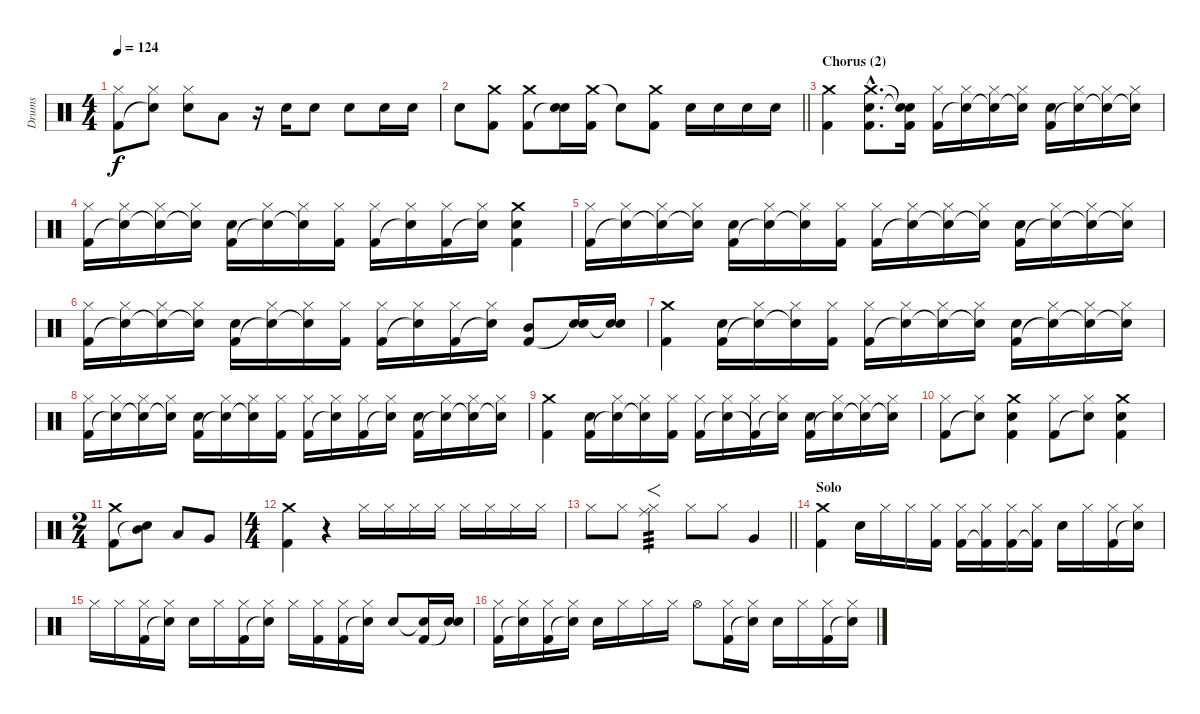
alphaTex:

\track ("Drums" "Drums") {instrument percussion}
\staff {score}
\articulation defaults
\ts (4 4)
\tempo 124
\clef neutral
\ks aminor
("Hi-Hat (closed)" "Kick (hit) 2").8{dy f} ("Hi-Hat (closed)" "Snare (hit)"{t}).8 ("Hi-Hat (closed)" "Electric Snare (hit)").8 "Low Tom (hit)".8 r.16 "Electric Snare (hit)".16 "Electric Snare (hit)".8 "Electric Snare (hit)".8 "Electric Snare (hit)".16 "Electric Snare (hit)".16 |
\barLineRight lightlight "Electric Snare (hit)".8
("Crash medium (hit)" "Kick (hit) 2").8 ("Crash medium (hit)" "Kick (hit) 2").8 ("Electric Snare (hit)" "Snare (hit)"{t}).16 ("Crash medium (hit)" "Kick (hit) 2").16 "Snare (hit)"{t}.8 ("Crash medium (hit)" "Kick (hit) 2").8 "Electric Snare (hit)".16 "Electric Snare (hit)".16 "Electric Snare (hit)".16 "Electric Snare (hit)".16 |
\section ("" "Chorus (2)")
("Crash medium (hit)" "Kick (hit) 2").4 ("Crash medium (hit)"{hac} "Electric Snare (hit)"{hac} "Kick (hit) 2"{hac}).8{d} ("Snare (hit)"{t} "Snare (hit)"{t} "Kick (hit) 2").16 ("Hi-Hat (closed)" "Kick (hit) 2").16 ("Hi-Hat (closed)" "Snare (hit)"{t}).16 ("Hi-Hat (closed)" "Snare (hit)"{t}).16 ("Hi-Hat (closed)" "Snare (hit)"{t}).16 ("Electric Snare (hit)" "Kick (hit) 2").16 ("Hi-Hat (closed)" "Snare (hit)"{t}).16 ("Hi-Hat (closed)" "Snare (hit)"{t}).16 ("Hi-Hat (closed)" "Snare (hit)"{t}).16 |
("Hi-Hat (closed)" "Kick (hit) 2").16 ("Hi-Hat (closed)" "Snare (hit)"{t}).16 ("Hi-Hat (closed)" "Snare (hit)"{t}).16 ("Hi-Hat (closed)" "Snare (hit)"{t}).16 ("Electric Snare (hit)" "Kick (hit) 2").16 ("Hi-Hat (closed)" "Snare (hit)"{t}).16 ("Hi-Hat (closed)" "Snare (hit)"{t}).16 ("Hi-Hat (closed)" "Kick (hit) 2").16 ("Hi-Hat (closed)" "Kick (hit) 2").16 ("Hi-Hat (closed)" "Snare (hit)"{t}).16 ("Hi-Hat (closed)" "Kick (hit) 2").16 ("Hi-Hat (closed)" "Snare (hit)"{t}).16 ("Crash medium (hit)" "Electric Snare (hit)" "Kick (hit) 2").4 |
("Hi-Hat (closed)" "Kick (hit) 2").16 ("Hi-Hat (closed)" "Snare (hit)"{t}).16 ("Hi-Hat (closed)" "Snare (hit)"{t}).16 ("Hi-Hat (closed)" "Snare (hit)"{t}).16 ("Electric Snare (hit)" "Kick (hit) 2").16 ("Hi-Hat (closed)" "Snare (hit)"{t}).16 ("Hi-Hat (closed)" "Snare (hit)"{t}).16 ("Hi-Hat (closed)" "Kick (hit) 2").16 ("Hi-Hat (closed)" "Kick (hit) 2").16 ("Hi-Hat (closed)" "Snare (hit)"{t}).16 ("Hi-Hat (closed)" "Snare (hit)"{t}).16 ("Hi-Hat (closed)" "Snare (hit)"{t}).16 ("Electric Snare (hit)" "Kick (hit) 2").16 ("Hi-Hat (closed)" "Snare (hit)"{t}).16 ("Hi-Hat (closed)" "Snare (hit)"{t}).16 ("Hi-Hat (closed)" "Snare (hit)"{t}).16 |
("Hi-Hat (closed)" "Kick (hit) 2").16 ("Hi-Hat (closed)" "Snare (hit)"{t}).16 ("Hi-Hat (closed)" "Snare (hit)"{t}).16 ("Hi-Hat (closed)" "Snare (hit)"{t}).16 ("Electric Snare (hit)" "Kick (hit) 2").16 ("Hi-Hat (closed)" "Snare (hit)"{t}).16 ("Hi-Hat (closed)" "Snare (hit)"{t}).16 ("Hi-Hat (closed)" "Kick (hit) 2").16 ("Hi-Hat (closed)" "Kick (hit) 2").16 ("Hi-Hat (closed)" "Snare (hit)"{t}).16 ("Hi-Hat (closed)" "Kick (hit) 2").16 ("Hi-Hat (closed)" "Snare (hit)"{t}).16 ("Mid Tom (hit)" "Kick (hit) 2").8 ("Electric Snare (hit)" "Snare (hit)"{t}).16 ("Electric Snare (hit)" "Snare (hit)"{t}).16 |
("Crash medium (hit)" "Kick (hit) 2").4 ("Electric Snare (hit)" "Kick (hit) 2").16 ("Hi-Hat (closed)" "Snare (hit)"{t}).16 ("Hi-Hat (closed)" "Snare (hit)"{t}).16 ("Hi-Hat (closed)" "Kick (hit) 2").16 ("Hi-Hat (closed)" "Kick (hit) 2").16 ("Hi-Hat (closed)" "Snare (hit)"{t}).16 ("Hi-Hat (closed)" "Snare (hit)"{t}).16 ("Hi-Hat (closed)" "Snare (hit)"{t}).16 ("Electric Snare (hit)" "Kick (hit) 2").16 ("Hi-Hat (closed)" "Snare (hit)"{t}).16 ("Hi-Hat (closed)" "Snare (hit)"{t}).16 ("Hi-Hat (closed)" "Snare (hit)"{t}).16 |
("Hi-Hat (closed)" "Kick (hit) 2").16 ("Hi-Hat (closed)" "Snare (hit)"{t}).16 ("Hi-Hat (closed)" "Snare (hit)"{t}).16 ("Hi-Hat (closed)" "Snare (hit)"{t}).16 ("Electric Snare (hit)" "Kick (hit) 2").16 ("Hi-Hat (closed)" "Snare (hit)"{t}).16 ("Hi-Hat (closed)" "Snare (hit)"{t}).16 ("Hi-Hat (closed)" "Kick (hit) 2").16 ("Hi-Hat (closed)" "Kick (hit) 2").16 ("Hi-Hat (closed)" "Snare (hit)"{t}).16 ("Hi-Hat (closed)" "Kick (hit) 2").16 ("Hi-Hat (closed)" "Snare (hit)"{t}).16 ("Electric Snare (hit)" "Kick (hit) 2").16 ("Hi-Hat (closed)" "Snare (hit)"{t}).16 ("Hi-Hat (closed)" "Snare (hit)"{t}).16 ("Hi-Hat (closed)" "Snare (hit)"{t}).16 |
("Crash medium (hit)" "Kick (hit) 2").4 ("Electric Snare (hit)" "Kick (hit) 2").16 ("Hi-Hat (closed)" "Snare (hit)"{t}).16 ("Hi-Hat (closed)" "Snare (hit)"{t}).16 ("Hi-Hat (closed)" "Kick (hit) 2").16 ("Hi-Hat (closed)" "Kick (hit) 2").16 ("Hi-Hat (closed)" "Snare (hit)"{t}).16 ("Hi-Hat (closed)" "Kick (hit) 2"{t}).16 ("Hi-Hat (closed)" "Snare (hit)"{t}).16 ("Electric Snare (hit)" "Kick (hit) 2").16 ("Hi-Hat (closed)" "Snare (hit)"{t}).16 ("Hi-Hat (closed)" "Snare (hit)"{t}).16 ("Hi-Hat (closed)" "Snare (hit)"{t}).16 |
("Hi-Hat (closed)" "Kick (hit) 2").8 ("Hi-Hat (closed)" "Snare (hit)"{t}).8 ("Crash medium (hit)" "Electric Snare (hit)" "Kick (hit) 2").4 ("Hi-Hat (closed)" "Kick (hit) 2").8 ("Hi-Hat (closed)" "Snare (hit)"{t}).8 ("Crash medium (hit)" "Electric Snare (hit)" "Kick (hit) 2").4 |
\ts (2 4)
("Crash medium (hit)" "Kick (hit) 2").8 ("Mid Tom (hit)" "Snare (hit)"{t}).8 "Low Tom (hit)".8 "Very Low Tom (hit)".8 |
\ts (4 4)
("Crash medium (hit)" "Kick (hit) 2").4 r.4 "Hi-Hat (closed)".16 "Hi-Hat (closed)".16 "Hi-Hat (closed)".16 "Hi-Hat (closed)".16 "Hi-Hat (closed)".16 "Hi-Hat (closed)".16 "Hi-Hat (closed)".16 "Hi-Hat (closed)".16 |
\barLineRight lightlight "Hi-Hat (closed)".8 "Hi-Hat (closed)".8
("Hi-Hat (closed)" "Ride (middle)").4{f tp 3} "Hi-Hat (closed)".8 "Hi-Hat (closed)".8 "Very Low Tom (hit)".4 |
\section ("" "Solo")
("Crash medium (hit)" "Kick (hit) 2").4 "Electric Snare (hit)".16 "Hi-Hat (closed)".16 "Hi-Hat (closed)".16 ("Hi-Hat (closed)" "Kick (hit) 2").16 ("Hi-Hat (closed)" "Kick (hit) 2").16 ("Hi-Hat (closed)" "Kick (hit) 2"{t}).16 ("Hi-Hat (closed)" "Kick (hit) 2").16 ("Hi-Hat (closed)" "Kick (hit) 2"{t}).16 "Electric Snare (hit)".16 "Hi-Hat (closed)".16 ("Hi-Hat (closed)" "Kick (hit) 2").16 ("Hi-Hat (closed)" "Snare (hit)"{t}).16 |
"Hi-Hat (closed)".16 "Hi-Hat (closed)".16 ("Hi-Hat (closed)" "Kick (hit) 2").16 ("Hi-Hat (closed)" "Snare (hit)"{t}).16 "Electric Snare (hit)".16 "Hi-Hat (closed)".16 ("Hi-Hat (closed)" "Kick (hit) 2").16 ("Hi-Hat (closed)" "Snare (hit)"{t}).16 "Hi-Hat (closed)".16 ("Hi-Hat (closed)" "Kick (hit) 2").16 ("Hi-Hat (closed)" "Kick (hit) 2").16 ("Hi-Hat (closed)" "Snare (hit)"{t}).16 "Electric Snare (hit)".8 ("Snare (hit)"{t} "Kick (hit) 2").16 ("Electric Snare (hit)" "Snare (hit)"{t}).16 |
("Hi-Hat (closed)" "Kick (hit) 2").16 ("Hi-Hat (closed)" "Snare (hit)"{t}).16 ("Hi-Hat (closed)" "Kick (hit) 2").16 ("Hi-Hat (closed)" "Snare (hit)"{t}).16 "Electric Snare (hit)".16 "Hi-Hat (closed)".16 "Hi-Hat (closed)".16 "Hi-Hat (closed)".16 "Hi-Hat (open)".8 ("Hi-Hat (closed)" "Kick (hit) 2").16 ("Hi-Hat (closed)" "Snare (hit)"{t}).16 "Electric Snare (hit)".16 "Hi-Hat (closed)".16 ("Hi-Hat (closed)" "Kick (hit) 2").16 ("Hi-Hat (closed)" "Snare (hit)"{t}).16
